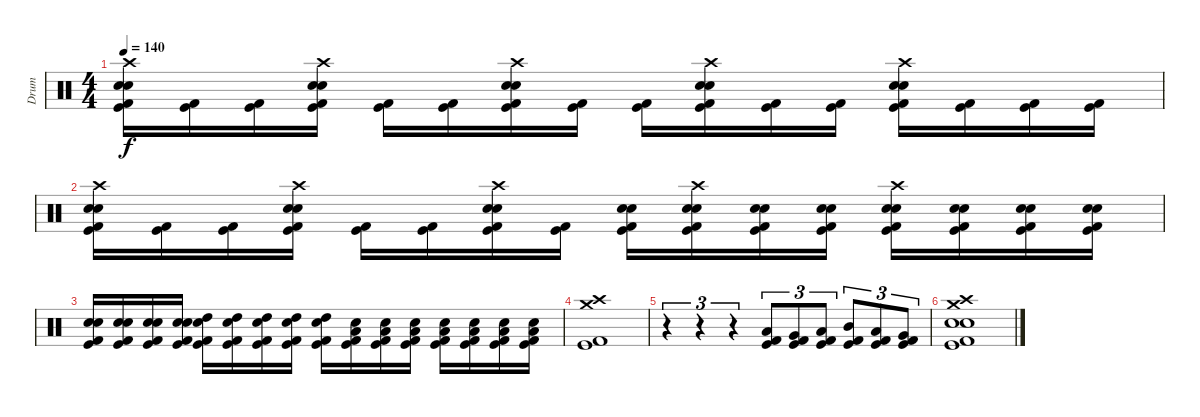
\track ("Drum" "Drum") {instrument percussion}
\staff {score}
\articulation defaults
\ts (4 4)
\tempo 140
\clef neutral
\ks c
("Crash high (hit)" "Snare (hit) 2" "Electric Snare (hit)" "Kick (hit)" "Kick (hit) 2").16{dy f} ("Kick (hit)" "Kick (hit) 2").16 ("Kick (hit)" "Kick (hit) 2").16 ("Crash high (hit)" "Snare (hit) 2" "Electric Snare (hit)" "Kick (hit)" "Kick (hit) 2").16 ("Kick (hit)" "Kick (hit) 2").16 ("Kick (hit)" "Kick (hit) 2").16 ("Crash high (hit)" "Snare (hit) 2" "Electric Snare (hit)" "Kick (hit)" "Kick (hit) 2").16 ("Kick (hit)" "Kick (hit) 2").16 ("Kick (hit)" "Kick (hit) 2").16 ("Crash high (hit)" "Snare (hit) 2" "Electric Snare (hit)" "Kick (hit)" "Kick (hit) 2").16 ("Kick (hit)" "Kick (hit) 2").16 ("Kick (hit)" "Kick (hit) 2").16 ("Crash high (hit)" "Snare (hit) 2" "Electric Snare (hit)" "Kick (hit)" "Kick (hit) 2").16 ("Kick (hit)" "Kick (hit) 2").16 ("Kick (hit)" "Kick (hit) 2").16 ("Kick (hit)" "Kick (hit) 2").16 |
("Crash high (hit)" "Snare (hit) 2" "Electric Snare (hit)" "Kick (hit)" "Kick (hit) 2").16 ("Kick (hit)" "Kick (hit) 2").16 ("Kick (hit)" "Kick (hit) 2").16 ("Crash high (hit)" "Snare (hit) 2" "Electric Snare (hit)" "Kick (hit)" "Kick (hit) 2").16 ("Kick (hit)" "Kick (hit) 2").16 ("Kick (hit)" "Kick (hit) 2").16 ("Crash high (hit)" "Snare (hit) 2" "Electric Snare (hit)" "Kick (hit)" "Kick (hit) 2").16 ("Kick (hit)" "Kick (hit) 2").16 ("Snare (hit) 2" "Electric Snare (hit)" "Kick (hit)" "Kick (hit) 2").16 ("Crash high (hit)" "Snare (hit) 2" "Electric Snare (hit)" "Kick (hit)" "Kick (hit) 2").16 ("Snare (hit) 2" "Electric Snare (hit)" "Kick (hit)" "Kick (hit) 2").16 ("Snare (hit) 2" "Electric Snare (hit)" "Kick (hit)" "Kick (hit) 2").16 ("Crash high (hit)" "Snare (hit) 2" "Electric Snare (hit)" "Kick (hit)" "Kick (hit) 2").16 ("Snare (hit) 2" "Electric Snare (hit)" "Kick (hit)" "Kick (hit) 2").16 ("Snare (hit) 2" "Electric Snare (hit)" "Kick (hit)" "Kick (hit) 2").16 ("Snare (hit) 2" "Electric Snare (hit)" "Kick (hit)" "Kick (hit) 2").16 |
("Snare (hit) 2" "Electric Snare (hit)" "Kick (hit)" "Kick (hit) 2").16 ("Snare (hit) 2" "Electric Snare (hit)" "Kick (hit)" "Kick (hit) 2").16 ("Snare (hit) 2" "Electric Snare (hit)" "Kick (hit)" "Kick (hit) 2").16 ("Snare (hit) 2" "Electric Snare (hit)" "Kick (hit)" "Kick (hit) 2").16 ("High Tom (hit)" "Electric Snare (hit)" "Kick (hit)" "Kick (hit) 2").16 ("High Tom (hit)" "Electric Snare (hit)" "Kick (hit)" "Kick (hit) 2").16 ("High Tom (hit)" "Electric Snare (hit)" "Kick (hit)" "Kick (hit) 2").16 ("High Tom (hit)" "Electric Snare (hit)" "Kick (hit)" "Kick (hit) 2").16 ("High Tom (hit)" "Electric Snare (hit)" "Kick (hit)" "Kick (hit) 2").16 ("Low Tom (hit)" "Electric Snare (hit)" "Kick (hit)" "Kick (hit) 2").16 ("Low Tom (hit)" "Electric Snare (hit)" "Kick (hit)" "Kick (hit) 2").16 ("Low Tom (hit)" "Electric Snare (hit)" "Kick (hit)" "Kick (hit) 2").16 ("Low Tom (hit)" "Electric Snare (hit)" "Kick (hit)" "Kick (hit) 2").16 ("Low Tom (hit)" "Electric Snare (hit)" "Kick (hit)" "Kick (hit) 2").16 ("Low Tom (hit)" "Electric Snare (hit)" "Kick (hit)" "Kick (hit) 2").16 ("Low Tom (hit)" "Electric Snare (hit)" "Kick (hit)" "Kick (hit) 2").16 |
("Crash medium (hit)" "Crash high (hit)" "Kick (hit)" "Kick (hit) 2").1 |
r.4{tu (3 2)} r.4{tu (3 2)} r.4{tu (3 2)} ("Low Floor Tom (hit)" "Kick (hit)" "Kick (hit) 2").8{tu (3 2)} ("Very Low Tom (hit)" "Kick (hit)" "Kick (hit) 2").8{tu (3 2)} ("Low Tom (hit)" "Kick (hit)" "Kick (hit) 2").8{tu (3 2)} ("Mid Tom (hit)" "Kick (hit)" "Kick (hit) 2").8{tu (3 2)} ("Low Floor Tom (hit)" "Kick (hit)" "Kick (hit) 2").8{tu (3 2)} ("Very Low Tom (hit)" "Kick (hit)" "Kick (hit) 2").8{tu (3 2)} |
("Crash medium (hit)" "Crash high (hit)" "Snare (hit) 2" "Electric Snare (hit)" "Kick (hit)" "Kick (hit) 2").1
